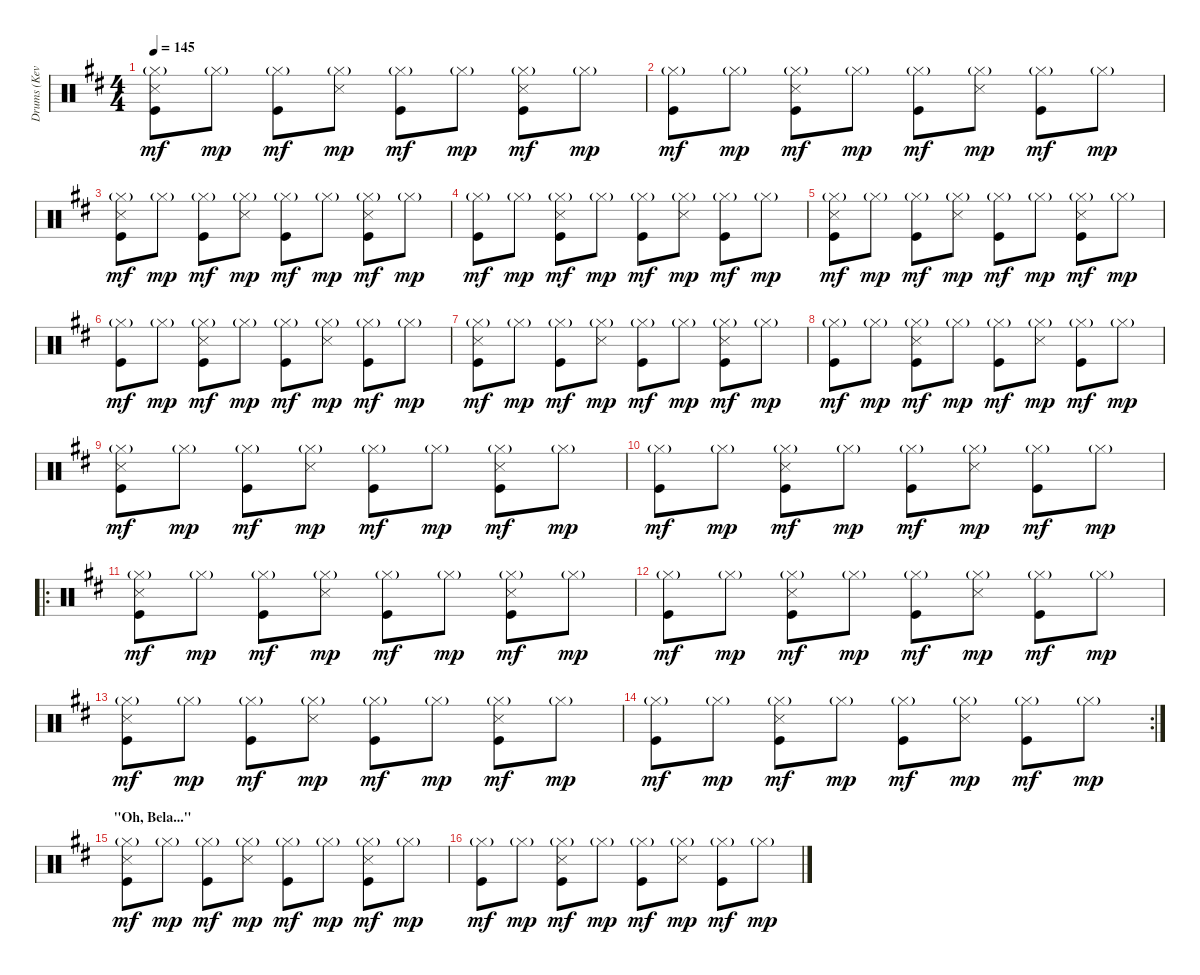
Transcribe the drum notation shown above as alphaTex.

\track ("Drums (Kevin Haskins)" "Drums (Kev") {instrument percussion}
\staff {score}
\articulation defaults
\ts (4 4)
\tempo 145
\clef neutral
\ks d
("Hi-Hat (closed)"{g} "Snare (side stick) 3" "Kick (hit)").8{dy mf} "Hi-Hat (closed)"{g}.8{dy mp} ("Hi-Hat (closed)"{g} "Kick (hit)").8{dy mf} ("Hi-Hat (closed)"{g} "Snare (side stick) 3").8{dy mp} ("Hi-Hat (closed)"{g} "Kick (hit)").8{dy mf} "Hi-Hat (closed)"{g}.8{dy mp} ("Hi-Hat (closed)"{g} "Snare (side stick) 3" "Kick (hit)").8{dy mf} "Hi-Hat (closed)"{g}.8{dy mp} |
("Hi-Hat (closed)"{g} "Kick (hit)").8{dy mf} "Hi-Hat (closed)"{g}.8{dy mp} ("Hi-Hat (closed)"{g} "Snare (side stick) 3" "Kick (hit)").8{dy mf} "Hi-Hat (closed)"{g}.8{dy mp} ("Hi-Hat (closed)"{g} "Kick (hit)").8{dy mf} ("Hi-Hat (closed)"{g} "Snare (side stick) 3").8{dy mp} ("Hi-Hat (closed)"{g} "Kick (hit)").8{dy mf} "Hi-Hat (closed)"{g}.8{dy mp} |
("Hi-Hat (closed)"{g} "Snare (side stick) 3" "Kick (hit)").8{dy mf} "Hi-Hat (closed)"{g}.8{dy mp} ("Hi-Hat (closed)"{g} "Kick (hit)").8{dy mf} ("Hi-Hat (closed)"{g} "Snare (side stick) 3").8{dy mp} ("Hi-Hat (closed)"{g} "Kick (hit)").8{dy mf} "Hi-Hat (closed)"{g}.8{dy mp} ("Hi-Hat (closed)"{g} "Snare (side stick) 3" "Kick (hit)").8{dy mf} "Hi-Hat (closed)"{g}.8{dy mp} |
("Hi-Hat (closed)"{g} "Kick (hit)").8{dy mf} "Hi-Hat (closed)"{g}.8{dy mp} ("Hi-Hat (closed)"{g} "Snare (side stick) 3" "Kick (hit)").8{dy mf} "Hi-Hat (closed)"{g}.8{dy mp} ("Hi-Hat (closed)"{g} "Kick (hit)").8{dy mf} ("Hi-Hat (closed)"{g} "Snare (side stick) 3").8{dy mp} ("Hi-Hat (closed)"{g} "Kick (hit)").8{dy mf} "Hi-Hat (closed)"{g}.8{dy mp} |
("Hi-Hat (closed)"{g} "Snare (side stick) 3" "Kick (hit)").8{dy mf} "Hi-Hat (closed)"{g}.8{dy mp} ("Hi-Hat (closed)"{g} "Kick (hit)").8{dy mf} ("Hi-Hat (closed)"{g} "Snare (side stick) 3").8{dy mp} ("Hi-Hat (closed)"{g} "Kick (hit)").8{dy mf} "Hi-Hat (closed)"{g}.8{dy mp} ("Hi-Hat (closed)"{g} "Snare (side stick) 3" "Kick (hit)").8{dy mf} "Hi-Hat (closed)"{g}.8{dy mp} |
("Hi-Hat (closed)"{g} "Kick (hit)").8{dy mf} "Hi-Hat (closed)"{g}.8{dy mp} ("Hi-Hat (closed)"{g} "Snare (side stick) 3" "Kick (hit)").8{dy mf} "Hi-Hat (closed)"{g}.8{dy mp} ("Hi-Hat (closed)"{g} "Kick (hit)").8{dy mf} ("Hi-Hat (closed)"{g} "Snare (side stick) 3").8{dy mp} ("Hi-Hat (closed)"{g} "Kick (hit)").8{dy mf} "Hi-Hat (closed)"{g}.8{dy mp} |
("Hi-Hat (closed)"{g} "Snare (side stick) 3" "Kick (hit)").8{dy mf} "Hi-Hat (closed)"{g}.8{dy mp} ("Hi-Hat (closed)"{g} "Kick (hit)").8{dy mf} ("Hi-Hat (closed)"{g} "Snare (side stick) 3").8{dy mp} ("Hi-Hat (closed)"{g} "Kick (hit)").8{dy mf} "Hi-Hat (closed)"{g}.8{dy mp} ("Hi-Hat (closed)"{g} "Snare (side stick) 3" "Kick (hit)").8{dy mf} "Hi-Hat (closed)"{g}.8{dy mp} |
("Hi-Hat (closed)"{g} "Kick (hit)").8{dy mf} "Hi-Hat (closed)"{g}.8{dy mp} ("Hi-Hat (closed)"{g} "Snare (side stick) 3" "Kick (hit)").8{dy mf} "Hi-Hat (closed)"{g}.8{dy mp} ("Hi-Hat (closed)"{g} "Kick (hit)").8{dy mf} ("Hi-Hat (closed)"{g} "Snare (side stick) 3").8{dy mp} ("Hi-Hat (closed)"{g} "Kick (hit)").8{dy mf} "Hi-Hat (closed)"{g}.8{dy mp} |
("Hi-Hat (closed)"{g} "Snare (side stick) 3" "Kick (hit)").8{dy mf} "Hi-Hat (closed)"{g}.8{dy mp} ("Hi-Hat (closed)"{g} "Kick (hit)").8{dy mf} ("Hi-Hat (closed)"{g} "Snare (side stick) 3").8{dy mp} ("Hi-Hat (closed)"{g} "Kick (hit)").8{dy mf} "Hi-Hat (closed)"{g}.8{dy mp} ("Hi-Hat (closed)"{g} "Snare (side stick) 3" "Kick (hit)").8{dy mf} "Hi-Hat (closed)"{g}.8{dy mp} |
("Hi-Hat (closed)"{g} "Kick (hit)").8{dy mf} "Hi-Hat (closed)"{g}.8{dy mp} ("Hi-Hat (closed)"{g} "Snare (side stick) 3" "Kick (hit)").8{dy mf} "Hi-Hat (closed)"{g}.8{dy mp} ("Hi-Hat (closed)"{g} "Kick (hit)").8{dy mf} ("Hi-Hat (closed)"{g} "Snare (side stick) 3").8{dy mp} ("Hi-Hat (closed)"{g} "Kick (hit)").8{dy mf} "Hi-Hat (closed)"{g}.8{dy mp} |
\ro
("Hi-Hat (closed)"{g} "Snare (side stick) 3" "Kick (hit)").8{dy mf} "Hi-Hat (closed)"{g}.8{dy mp} ("Hi-Hat (closed)"{g} "Kick (hit)").8{dy mf} ("Hi-Hat (closed)"{g} "Snare (side stick) 3").8{dy mp} ("Hi-Hat (closed)"{g} "Kick (hit)").8{dy mf} "Hi-Hat (closed)"{g}.8{dy mp} ("Hi-Hat (closed)"{g} "Snare (side stick) 3" "Kick (hit)").8{dy mf} "Hi-Hat (closed)"{g}.8{dy mp} |
("Hi-Hat (closed)"{g} "Kick (hit)").8{dy mf} "Hi-Hat (closed)"{g}.8{dy mp} ("Hi-Hat (closed)"{g} "Snare (side stick) 3" "Kick (hit)").8{dy mf} "Hi-Hat (closed)"{g}.8{dy mp} ("Hi-Hat (closed)"{g} "Kick (hit)").8{dy mf} ("Hi-Hat (closed)"{g} "Snare (side stick) 3").8{dy mp} ("Hi-Hat (closed)"{g} "Kick (hit)").8{dy mf} "Hi-Hat (closed)"{g}.8{dy mp} |
("Hi-Hat (closed)"{g} "Snare (side stick) 3" "Kick (hit)").8{dy mf} "Hi-Hat (closed)"{g}.8{dy mp} ("Hi-Hat (closed)"{g} "Kick (hit)").8{dy mf} ("Hi-Hat (closed)"{g} "Snare (side stick) 3").8{dy mp} ("Hi-Hat (closed)"{g} "Kick (hit)").8{dy mf} "Hi-Hat (closed)"{g}.8{dy mp} ("Hi-Hat (closed)"{g} "Snare (side stick) 3" "Kick (hit)").8{dy mf} "Hi-Hat (closed)"{g}.8{dy mp} |
\rc 2
("Hi-Hat (closed)"{g} "Kick (hit)").8{dy mf} "Hi-Hat (closed)"{g}.8{dy mp} ("Hi-Hat (closed)"{g} "Snare (side stick) 3" "Kick (hit)").8{dy mf} "Hi-Hat (closed)"{g}.8{dy mp} ("Hi-Hat (closed)"{g} "Kick (hit)").8{dy mf} ("Hi-Hat (closed)"{g} "Snare (side stick) 3").8{dy mp} ("Hi-Hat (closed)"{g} "Kick (hit)").8{dy mf} "Hi-Hat (closed)"{g}.8{dy mp} |
\section ("" "\"Oh, Bela...\"")
("Hi-Hat (closed)"{g} "Snare (side stick) 3" "Kick (hit)").8{dy mf} "Hi-Hat (closed)"{g}.8{dy mp} ("Hi-Hat (closed)"{g} "Kick (hit)").8{dy mf} ("Hi-Hat (closed)"{g} "Snare (side stick) 3").8{dy mp} ("Hi-Hat (closed)"{g} "Kick (hit)").8{dy mf} "Hi-Hat (closed)"{g}.8{dy mp} ("Hi-Hat (closed)"{g} "Snare (side stick) 3" "Kick (hit)").8{dy mf} "Hi-Hat (closed)"{g}.8{dy mp} |
("Hi-Hat (closed)"{g} "Kick (hit)").8{dy mf} "Hi-Hat (closed)"{g}.8{dy mp} ("Hi-Hat (closed)"{g} "Snare (side stick) 3" "Kick (hit)").8{dy mf} "Hi-Hat (closed)"{g}.8{dy mp} ("Hi-Hat (closed)"{g} "Kick (hit)").8{dy mf} ("Hi-Hat (closed)"{g} "Snare (side stick) 3").8{dy mp} ("Hi-Hat (closed)"{g} "Kick (hit)").8{dy mf} "Hi-Hat (closed)"{g}.8{dy mp}
